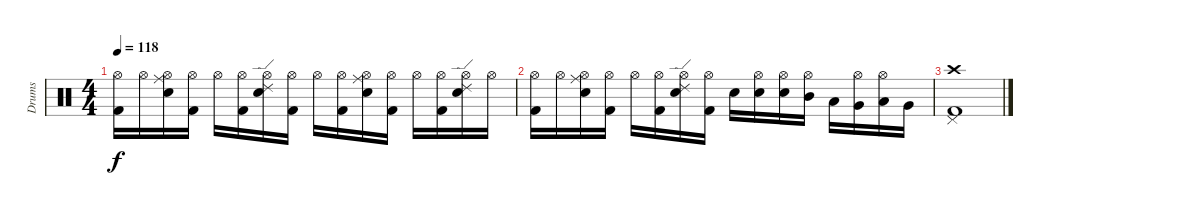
\track ("Drums" "Drums") {instrument percussion}
\staff {score}
\articulation defaults
\ts (4 4)
\tempo 118
\clef neutral
\ks c
("Kick (hit) 2" "Hi-Hat (open)").16{dy f} "Hi-Hat (open)".16 ("Snare (hit) 2" "Hi-Hat (open)" "Ride (middle)").16 ("Kick (hit) 2" "Hi-Hat (open)").16 "Hi-Hat (open)".16 ("Kick (hit) 2" "Hi-Hat (open)").16 ("Snare (hit) 2" "Hi-Hat (open)" "Ride (edge) 2").16 ("Kick (hit) 2" "Hi-Hat (open)").16 "Hi-Hat (open)".16 ("Kick (hit) 2" "Hi-Hat (open)").16 ("Snare (hit) 2" "Hi-Hat (open)" "Ride (middle)").16 ("Kick (hit) 2" "Hi-Hat (open)").16 "Hi-Hat (open)".16 ("Kick (hit) 2" "Hi-Hat (open)").16 ("Snare (hit) 2" "Hi-Hat (open)" "Ride (edge) 2").16 "Hi-Hat (open)".16 |
("Kick (hit) 2" "Hi-Hat (open)").16 "Hi-Hat (open)".16 ("Snare (hit) 2" "Hi-Hat (open)" "Ride (middle)").16 ("Kick (hit) 2" "Hi-Hat (open)").16 "Hi-Hat (open)".16 ("Kick (hit) 2" "Hi-Hat (open)").16 ("Snare (hit) 2" "Hi-Hat (open)" "Ride (edge) 2").16 ("Kick (hit) 2" "Hi-Hat (open)").16 "Snare (hit) 2".16 ("Snare (hit) 2" "Hi-Hat (open)").16 ("Snare (hit) 2" "Hi-Hat (open)").16 ("Mid Tom (hit)" "Hi-Hat (open)").16 "Low Tom (hit)".16 ("Very Low Tom (hit)" "Hi-Hat (open)").16 ("Low Floor Tom (hit)" "Hi-Hat (open)").16 "Very Low Tom (hit)".16 |
("Kick (hit) 2" "Pedal Hi-Hat (hit)" "Crash high (hit)").1
